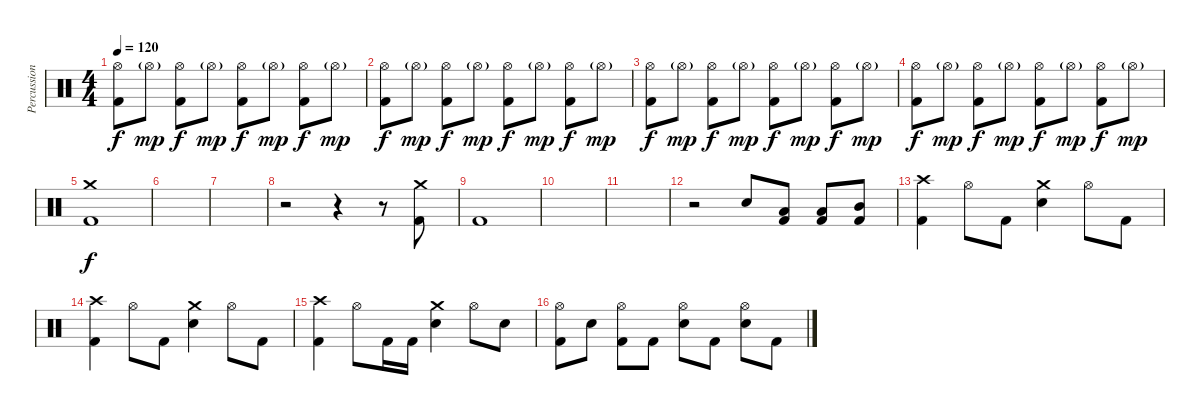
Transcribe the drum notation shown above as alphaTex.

\track ("Percussions" "Percussion") {instrument percussion}
\staff {score}
\articulation defaults
\ts (4 4)
\tempo 120
\clef neutral
\ks c
("Hi-Hat (open)" "Kick (hit) 2").8{dy f} "Hi-Hat (open)"{g}.8{dy mp} ("Hi-Hat (open)" "Kick (hit) 2").8{dy f} "Hi-Hat (open)"{g}.8{dy mp} ("Hi-Hat (open)" "Kick (hit) 2").8{dy f} "Hi-Hat (open)"{g}.8{dy mp} ("Hi-Hat (open)" "Kick (hit) 2").8{dy f} "Hi-Hat (open)"{g}.8{dy mp} |
("Hi-Hat (open)" "Kick (hit) 2").8{dy f} "Hi-Hat (open)"{g}.8{dy mp} ("Hi-Hat (open)" "Kick (hit) 2").8{dy f} "Hi-Hat (open)"{g}.8{dy mp} ("Hi-Hat (open)" "Kick (hit) 2").8{dy f} "Hi-Hat (open)"{g}.8{dy mp} ("Hi-Hat (open)" "Kick (hit) 2").8{dy f} "Hi-Hat (open)"{g}.8{dy mp} |
("Hi-Hat (open)" "Kick (hit) 2").8{dy f} "Hi-Hat (open)"{g}.8{dy mp} ("Hi-Hat (open)" "Kick (hit) 2").8{dy f} "Hi-Hat (open)"{g}.8{dy mp} ("Hi-Hat (open)" "Kick (hit) 2").8{dy f} "Hi-Hat (open)"{g}.8{dy mp} ("Hi-Hat (open)" "Kick (hit) 2").8{dy f} "Hi-Hat (open)"{g}.8{dy mp} |
("Hi-Hat (open)" "Kick (hit) 2").8{dy f} "Hi-Hat (open)"{g}.8{dy mp} ("Hi-Hat (open)" "Kick (hit) 2").8{dy f} "Hi-Hat (open)"{g}.8{dy mp} ("Hi-Hat (open)" "Kick (hit) 2").8{dy f} "Hi-Hat (open)"{g}.8{dy mp} ("Hi-Hat (open)" "Kick (hit) 2").8{dy f} "Hi-Hat (open)"{g}.8{dy mp} |
("Crash medium (hit)" "Kick (hit) 2").1{dy f} |
|
|
r.2 r.4 r.8 ("Crash medium (hit)" "Kick (hit) 2").8 |
"Kick (hit) 2".1 |
|
|
r.2 "Electric Snare (hit)".8 ("Low Tom (hit)" "Kick (hit) 2").8 ("Low Tom (hit)" "Kick (hit) 2").8 ("Mid Tom (hit)" "Kick (hit) 2").8 |
("Crash high (hit)" "Kick (hit) 2").4 "Hi-Hat (open)".8 "Kick (hit) 2".8 ("Crash medium (hit)" "Electric Snare (hit)").4 "Hi-Hat (open)".8 "Kick (hit) 2".8 |
("Crash high (hit)" "Kick (hit) 2").4 "Hi-Hat (open)".8 "Kick (hit) 2".8 ("Crash medium (hit)" "Electric Snare (hit)").4 "Hi-Hat (open)".8 "Kick (hit) 2".8 |
("Crash high (hit)" "Kick (hit) 2").4 "Hi-Hat (open)".8 "Kick (hit) 2".16 "Kick (hit) 2".16 ("Crash medium (hit)" "Electric Snare (hit)").4 "Hi-Hat (open)".8 "Electric Snare (hit)".8 |
("Hi-Hat (open)" "Kick (hit) 2").8 "Electric Snare (hit)".8 ("Hi-Hat (open)" "Kick (hit) 2").8 "Kick (hit) 2".8 ("Hi-Hat (open)" "Electric Snare (hit)").8 "Kick (hit) 2".8 ("Hi-Hat (open)" "Electric Snare (hit)").8 "Kick (hit) 2".8
